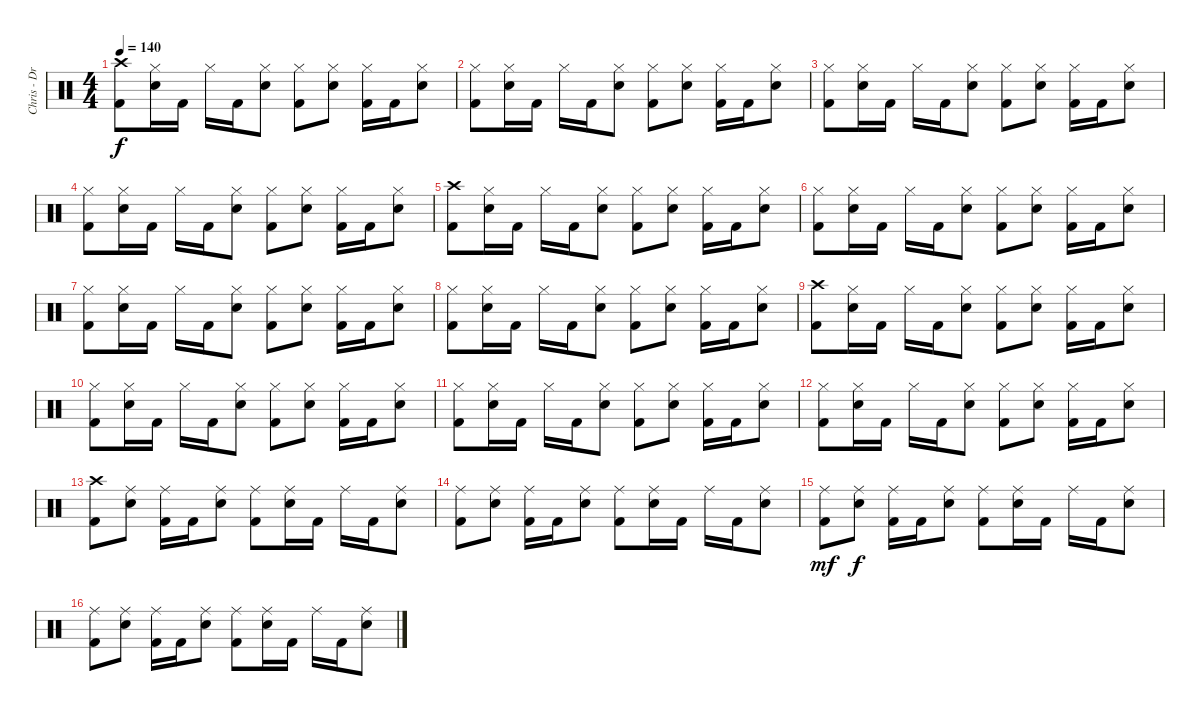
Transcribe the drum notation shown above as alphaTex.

\track ("Chris - Drums" "Chris - Dr") {instrument percussion}
\staff {score}
\articulation defaults
\ts (4 4)
\tempo 140
\clef neutral
\ks c
("Crash high (hit)" "Kick (hit) 2").8{dy f} ("Hi-Hat (closed)" "Electric Snare (hit)").16 "Kick (hit) 2".16 "Hi-Hat (closed)".16 "Kick (hit) 2".16 ("Hi-Hat (closed)" "Electric Snare (hit)").8 ("Hi-Hat (closed)" "Kick (hit) 2").8 ("Hi-Hat (closed)" "Electric Snare (hit)").8 ("Hi-Hat (closed)" "Kick (hit) 2").16 "Kick (hit) 2".16 ("Hi-Hat (closed)" "Electric Snare (hit)").8 |
("Hi-Hat (closed)" "Kick (hit) 2").8 ("Hi-Hat (closed)" "Electric Snare (hit)").16 "Kick (hit) 2".16 "Hi-Hat (closed)".16 "Kick (hit) 2".16 ("Hi-Hat (closed)" "Electric Snare (hit)").8 ("Hi-Hat (closed)" "Kick (hit) 2").8 ("Hi-Hat (closed)" "Electric Snare (hit)").8 ("Hi-Hat (closed)" "Kick (hit) 2").16 "Kick (hit) 2".16 ("Hi-Hat (closed)" "Electric Snare (hit)").8 |
("Hi-Hat (closed)" "Kick (hit) 2").8 ("Hi-Hat (closed)" "Electric Snare (hit)").16 "Kick (hit) 2".16 "Hi-Hat (closed)".16 "Kick (hit) 2".16 ("Hi-Hat (closed)" "Electric Snare (hit)").8 ("Hi-Hat (closed)" "Kick (hit) 2").8 ("Hi-Hat (closed)" "Electric Snare (hit)").8 ("Hi-Hat (closed)" "Kick (hit) 2").16 "Kick (hit) 2".16 ("Hi-Hat (closed)" "Electric Snare (hit)").8 |
("Hi-Hat (closed)" "Kick (hit) 2").8 ("Hi-Hat (closed)" "Electric Snare (hit)").16 "Kick (hit) 2".16 "Hi-Hat (closed)".16 "Kick (hit) 2".16 ("Hi-Hat (closed)" "Electric Snare (hit)").8 ("Hi-Hat (closed)" "Kick (hit) 2").8 ("Hi-Hat (closed)" "Electric Snare (hit)").8 ("Hi-Hat (closed)" "Kick (hit) 2").16 "Kick (hit) 2".16 ("Hi-Hat (closed)" "Electric Snare (hit)").8 |
("Crash high (hit)" "Kick (hit) 2").8 ("Hi-Hat (closed)" "Electric Snare (hit)").16 "Kick (hit) 2".16 "Hi-Hat (closed)".16 "Kick (hit) 2".16 ("Hi-Hat (closed)" "Electric Snare (hit)").8 ("Hi-Hat (closed)" "Kick (hit) 2").8 ("Hi-Hat (closed)" "Electric Snare (hit)").8 ("Hi-Hat (closed)" "Kick (hit) 2").16 "Kick (hit) 2".16 ("Hi-Hat (closed)" "Electric Snare (hit)").8 |
("Hi-Hat (closed)" "Kick (hit) 2").8 ("Hi-Hat (closed)" "Electric Snare (hit)").16 "Kick (hit) 2".16 "Hi-Hat (closed)".16 "Kick (hit) 2".16 ("Hi-Hat (closed)" "Electric Snare (hit)").8 ("Hi-Hat (closed)" "Kick (hit) 2").8 ("Hi-Hat (closed)" "Electric Snare (hit)").8 ("Hi-Hat (closed)" "Kick (hit) 2").16 "Kick (hit) 2".16 ("Hi-Hat (closed)" "Electric Snare (hit)").8 |
("Hi-Hat (closed)" "Kick (hit) 2").8 ("Hi-Hat (closed)" "Electric Snare (hit)").16 "Kick (hit) 2".16 "Hi-Hat (closed)".16 "Kick (hit) 2".16 ("Hi-Hat (closed)" "Electric Snare (hit)").8 ("Hi-Hat (closed)" "Kick (hit) 2").8 ("Hi-Hat (closed)" "Electric Snare (hit)").8 ("Hi-Hat (closed)" "Kick (hit) 2").16 "Kick (hit) 2".16 ("Hi-Hat (closed)" "Electric Snare (hit)").8 |
("Hi-Hat (closed)" "Kick (hit) 2").8 ("Hi-Hat (closed)" "Electric Snare (hit)").16 "Kick (hit) 2".16 "Hi-Hat (closed)".16 "Kick (hit) 2".16 ("Hi-Hat (closed)" "Electric Snare (hit)").8 ("Hi-Hat (closed)" "Kick (hit) 2").8 ("Hi-Hat (closed)" "Electric Snare (hit)").8 ("Hi-Hat (closed)" "Kick (hit) 2").16 "Kick (hit) 2".16 ("Hi-Hat (closed)" "Electric Snare (hit)").8 |
("Crash high (hit)" "Kick (hit) 2").8 ("Hi-Hat (closed)" "Electric Snare (hit)").16 "Kick (hit) 2".16 "Hi-Hat (closed)".16 "Kick (hit) 2".16 ("Hi-Hat (closed)" "Electric Snare (hit)").8 ("Hi-Hat (closed)" "Kick (hit) 2").8 ("Hi-Hat (closed)" "Electric Snare (hit)").8 ("Hi-Hat (closed)" "Kick (hit) 2").16 "Kick (hit) 2".16 ("Hi-Hat (closed)" "Electric Snare (hit)").8 |
("Hi-Hat (closed)" "Kick (hit) 2").8 ("Hi-Hat (closed)" "Electric Snare (hit)").16 "Kick (hit) 2".16 "Hi-Hat (closed)".16 "Kick (hit) 2".16 ("Hi-Hat (closed)" "Electric Snare (hit)").8 ("Hi-Hat (closed)" "Kick (hit) 2").8 ("Hi-Hat (closed)" "Electric Snare (hit)").8 ("Hi-Hat (closed)" "Kick (hit) 2").16 "Kick (hit) 2".16 ("Hi-Hat (closed)" "Electric Snare (hit)").8 |
("Hi-Hat (closed)" "Kick (hit) 2").8 ("Hi-Hat (closed)" "Electric Snare (hit)").16 "Kick (hit) 2".16 "Hi-Hat (closed)".16 "Kick (hit) 2".16 ("Hi-Hat (closed)" "Electric Snare (hit)").8 ("Hi-Hat (closed)" "Kick (hit) 2").8 ("Hi-Hat (closed)" "Electric Snare (hit)").8 ("Hi-Hat (closed)" "Kick (hit) 2").16 "Kick (hit) 2".16 ("Hi-Hat (closed)" "Electric Snare (hit)").8 |
("Hi-Hat (closed)" "Kick (hit) 2").8 ("Hi-Hat (closed)" "Electric Snare (hit)").16 "Kick (hit) 2".16 "Hi-Hat (closed)".16 "Kick (hit) 2".16 ("Hi-Hat (closed)" "Electric Snare (hit)").8 ("Hi-Hat (closed)" "Kick (hit) 2").8 ("Hi-Hat (closed)" "Electric Snare (hit)").8 ("Hi-Hat (closed)" "Kick (hit) 2").16 "Kick (hit) 2".16 ("Hi-Hat (closed)" "Electric Snare (hit)").8 |
("Crash high (hit)" "Kick (hit) 2").8 ("Ride (middle)" "Electric Snare (hit)").8 ("Ride (middle)" "Kick (hit) 2").16 "Kick (hit) 2".16 ("Ride (middle)" "Electric Snare (hit)").8 ("Ride (middle)" "Kick (hit) 2").8 ("Ride (middle)" "Electric Snare (hit)").16 "Kick (hit) 2".16 "Ride (middle)".16 "Kick (hit) 2".16 ("Ride (middle)" "Electric Snare (hit)").8 |
("Ride (middle)" "Kick (hit) 2").8 ("Ride (middle)" "Electric Snare (hit)").8 ("Ride (middle)" "Kick (hit) 2").16 "Kick (hit) 2".16 ("Ride (middle)" "Electric Snare (hit)").8 ("Ride (middle)" "Kick (hit) 2").8 ("Ride (middle)" "Electric Snare (hit)").16 "Kick (hit) 2".16 "Ride (middle)".16 "Kick (hit) 2".16 ("Ride (middle)" "Electric Snare (hit)").8 |
("Ride (middle)" "Kick (hit) 2").8{dy mf} ("Ride (middle)" "Electric Snare (hit)").8{dy f} ("Ride (middle)" "Kick (hit) 2").16 "Kick (hit) 2".16 ("Ride (middle)" "Electric Snare (hit)").8 ("Ride (middle)" "Kick (hit) 2").8 ("Ride (middle)" "Electric Snare (hit)").16 "Kick (hit) 2".16 "Ride (middle)".16 "Kick (hit) 2".16 ("Ride (middle)" "Electric Snare (hit)").8 |
("Ride (middle)" "Kick (hit) 2").8 ("Ride (middle)" "Electric Snare (hit)").8 ("Ride (middle)" "Kick (hit) 2").16 "Kick (hit) 2".16 ("Ride (middle)" "Electric Snare (hit)").8 ("Ride (middle)" "Kick (hit) 2").8 ("Ride (middle)" "Electric Snare (hit)").16 "Kick (hit) 2".16 "Ride (middle)".16 "Kick (hit) 2".16 ("Ride (middle)" "Electric Snare (hit)").8
